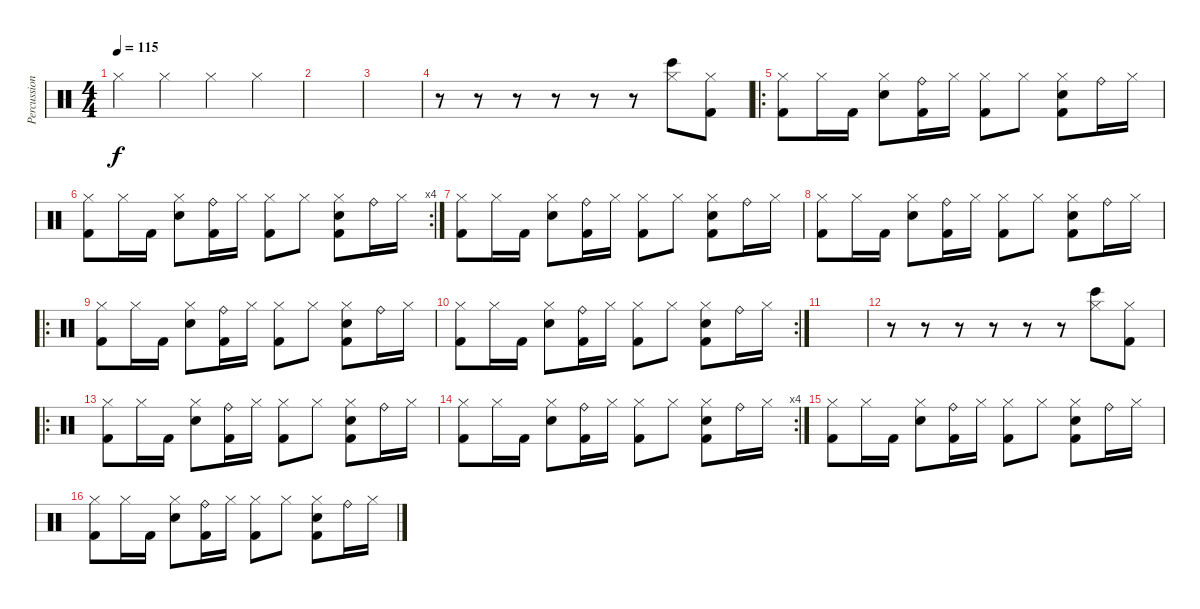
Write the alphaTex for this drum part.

\track ("Percussions" "Percussion") {instrument percussion}
\staff {score}
\articulation defaults
\ts (4 4)
\tempo 115
\clef neutral
\ks c "Hi-Hat (closed)".4{dy f} "Hi-Hat (closed)".4 "Hi-Hat (closed)".4 "Hi-Hat (closed)".4
|
|
|
r.8 r.8 r.8 r.8 r.8 r.8 ("Hi-Hat (closed)" "Bongo High (hit)").8 ("Kick (hit) 2" "Hi-Hat (closed)").8 |
\ro
("Kick (hit) 2" "Hi-Hat (closed)").8 "Hi-Hat (closed)".16 "Kick (hit) 2".16 ("Electric Snare (hit)" "Hi-Hat (closed)").8 ("Kick (hit) 2" "Ride (bell)").16 "Hi-Hat (closed)".16 ("Kick (hit) 2" "Hi-Hat (closed)").8 "Hi-Hat (closed)".8 ("Kick (hit) 2" "Electric Snare (hit)" "Hi-Hat (closed)").8 "Ride (bell)".16 "Hi-Hat (closed)".16 |
\rc 4
("Kick (hit) 2" "Hi-Hat (closed)").8 "Hi-Hat (closed)".16 "Kick (hit) 2".16 ("Electric Snare (hit)" "Hi-Hat (closed)").8 ("Kick (hit) 2" "Ride (bell)").16 "Hi-Hat (closed)".16 ("Kick (hit) 2" "Hi-Hat (closed)").8 "Hi-Hat (closed)".8 ("Kick (hit) 2" "Electric Snare (hit)" "Hi-Hat (closed)").8 "Ride (bell)".16 "Hi-Hat (closed)".16 |
("Kick (hit) 2" "Hi-Hat (closed)").8 "Hi-Hat (closed)".16 "Kick (hit) 2".16 ("Electric Snare (hit)" "Hi-Hat (closed)").8 ("Kick (hit) 2" "Ride (bell)").16 "Hi-Hat (closed)".16 ("Kick (hit) 2" "Hi-Hat (closed)").8 "Hi-Hat (closed)".8 ("Kick (hit) 2" "Electric Snare (hit)" "Hi-Hat (closed)").8 "Ride (bell)".16 "Hi-Hat (closed)".16 |
("Kick (hit) 2" "Hi-Hat (closed)").8 "Hi-Hat (closed)".16 "Kick (hit) 2".16 ("Electric Snare (hit)" "Hi-Hat (closed)").8 ("Kick (hit) 2" "Ride (bell)").16 "Hi-Hat (closed)".16 ("Kick (hit) 2" "Hi-Hat (closed)").8 "Hi-Hat (closed)".8 ("Kick (hit) 2" "Electric Snare (hit)" "Hi-Hat (closed)").8 "Ride (bell)".16 "Hi-Hat (closed)".16 |
\ro
("Kick (hit) 2" "Hi-Hat (closed)").8 "Hi-Hat (closed)".16 "Kick (hit) 2".16 ("Electric Snare (hit)" "Hi-Hat (closed)").8 ("Kick (hit) 2" "Ride (bell)").16 "Hi-Hat (closed)".16 ("Kick (hit) 2" "Hi-Hat (closed)").8 "Hi-Hat (closed)".8 ("Kick (hit) 2" "Electric Snare (hit)" "Hi-Hat (closed)").8 "Ride (bell)".16 "Hi-Hat (closed)".16 |
\rc 2
("Kick (hit) 2" "Hi-Hat (closed)").8 "Hi-Hat (closed)".16 "Kick (hit) 2".16 ("Electric Snare (hit)" "Hi-Hat (closed)").8 ("Kick (hit) 2" "Ride (bell)").16 "Hi-Hat (closed)".16 ("Kick (hit) 2" "Hi-Hat (closed)").8 "Hi-Hat (closed)".8 ("Kick (hit) 2" "Electric Snare (hit)" "Hi-Hat (closed)").8 "Ride (bell)".16 "Hi-Hat (closed)".16 |
|
r.8 r.8 r.8 r.8 r.8 r.8 ("Hi-Hat (closed)" "Bongo High (hit)").8 ("Kick (hit) 2" "Hi-Hat (closed)").8 |
\ro
("Kick (hit) 2" "Hi-Hat (closed)").8 "Hi-Hat (closed)".16 "Kick (hit) 2".16 ("Electric Snare (hit)" "Hi-Hat (closed)").8 ("Kick (hit) 2" "Ride (bell)").16 "Hi-Hat (closed)".16 ("Kick (hit) 2" "Hi-Hat (closed)").8 "Hi-Hat (closed)".8 ("Kick (hit) 2" "Electric Snare (hit)" "Hi-Hat (closed)").8 "Ride (bell)".16 "Hi-Hat (closed)".16 |
\rc 4
("Kick (hit) 2" "Hi-Hat (closed)").8 "Hi-Hat (closed)".16 "Kick (hit) 2".16 ("Electric Snare (hit)" "Hi-Hat (closed)").8 ("Kick (hit) 2" "Ride (bell)").16 "Hi-Hat (closed)".16 ("Kick (hit) 2" "Hi-Hat (closed)").8 "Hi-Hat (closed)".8 ("Kick (hit) 2" "Electric Snare (hit)" "Hi-Hat (closed)").8 "Ride (bell)".16 "Hi-Hat (closed)".16 |
("Kick (hit) 2" "Hi-Hat (closed)").8 "Hi-Hat (closed)".16 "Kick (hit) 2".16 ("Electric Snare (hit)" "Hi-Hat (closed)").8 ("Kick (hit) 2" "Ride (bell)").16 "Hi-Hat (closed)".16 ("Kick (hit) 2" "Hi-Hat (closed)").8 "Hi-Hat (closed)".8 ("Kick (hit) 2" "Electric Snare (hit)" "Hi-Hat (closed)").8 "Ride (bell)".16 "Hi-Hat (closed)".16 |
("Kick (hit) 2" "Hi-Hat (closed)").8 "Hi-Hat (closed)".16 "Kick (hit) 2".16 ("Electric Snare (hit)" "Hi-Hat (closed)").8 ("Kick (hit) 2" "Ride (bell)").16 "Hi-Hat (closed)".16 ("Kick (hit) 2" "Hi-Hat (closed)").8 "Hi-Hat (closed)".8 ("Kick (hit) 2" "Electric Snare (hit)" "Hi-Hat (closed)").8 "Ride (bell)".16 "Hi-Hat (closed)".16
